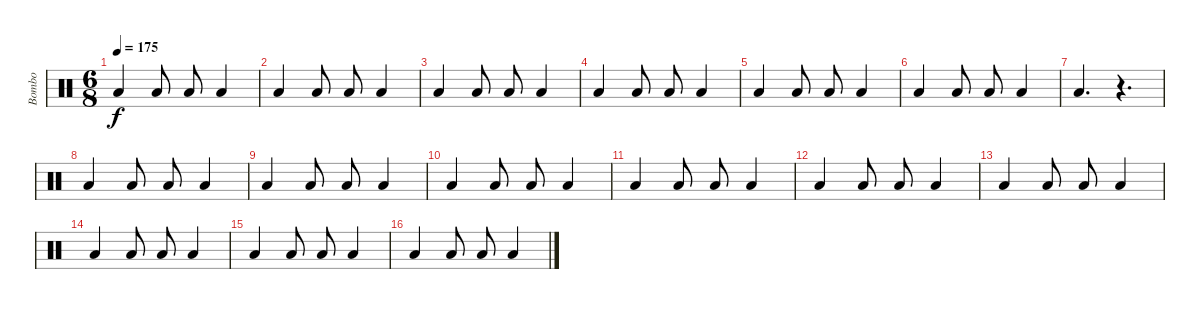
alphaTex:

\track ("Bombo" "Bombo") {instrument percussion}
\staff {score}
\articulation defaults
\ts (6 8)
\tempo 175
\clef neutral
\ks c "Low Floor Tom (hit)".4{dy f} "Low Floor Tom (hit)".8 "Low Floor Tom (hit)".8 "Low Floor Tom (hit)".4
|
"Low Floor Tom (hit)".4 "Low Floor Tom (hit)".8 "Low Floor Tom (hit)".8 "Low Floor Tom (hit)".4 |
"Low Floor Tom (hit)".4 "Low Floor Tom (hit)".8 "Low Floor Tom (hit)".8 "Low Floor Tom (hit)".4 |
"Low Floor Tom (hit)".4 "Low Floor Tom (hit)".8 "Low Floor Tom (hit)".8 "Low Floor Tom (hit)".4 |
"Low Floor Tom (hit)".4 "Low Floor Tom (hit)".8 "Low Floor Tom (hit)".8 "Low Floor Tom (hit)".4 |
"Low Floor Tom (hit)".4 "Low Floor Tom (hit)".8 "Low Floor Tom (hit)".8 "Low Floor Tom (hit)".4 |
"Low Floor Tom (hit)".4{d} r.4{d} |
"Low Floor Tom (hit)".4 "Low Floor Tom (hit)".8 "Low Floor Tom (hit)".8 "Low Floor Tom (hit)".4 |
"Low Floor Tom (hit)".4 "Low Floor Tom (hit)".8 "Low Floor Tom (hit)".8 "Low Floor Tom (hit)".4 |
"Low Floor Tom (hit)".4 "Low Floor Tom (hit)".8 "Low Floor Tom (hit)".8 "Low Floor Tom (hit)".4 |
"Low Floor Tom (hit)".4 "Low Floor Tom (hit)".8 "Low Floor Tom (hit)".8 "Low Floor Tom (hit)".4 |
"Low Floor Tom (hit)".4 "Low Floor Tom (hit)".8 "Low Floor Tom (hit)".8 "Low Floor Tom (hit)".4 |
"Low Floor Tom (hit)".4 "Low Floor Tom (hit)".8 "Low Floor Tom (hit)".8 "Low Floor Tom (hit)".4 |
"Low Floor Tom (hit)".4 "Low Floor Tom (hit)".8 "Low Floor Tom (hit)".8 "Low Floor Tom (hit)".4 |
"Low Floor Tom (hit)".4 "Low Floor Tom (hit)".8 "Low Floor Tom (hit)".8 "Low Floor Tom (hit)".4 |
"Low Floor Tom (hit)".4 "Low Floor Tom (hit)".8 "Low Floor Tom (hit)".8 "Low Floor Tom (hit)".4
